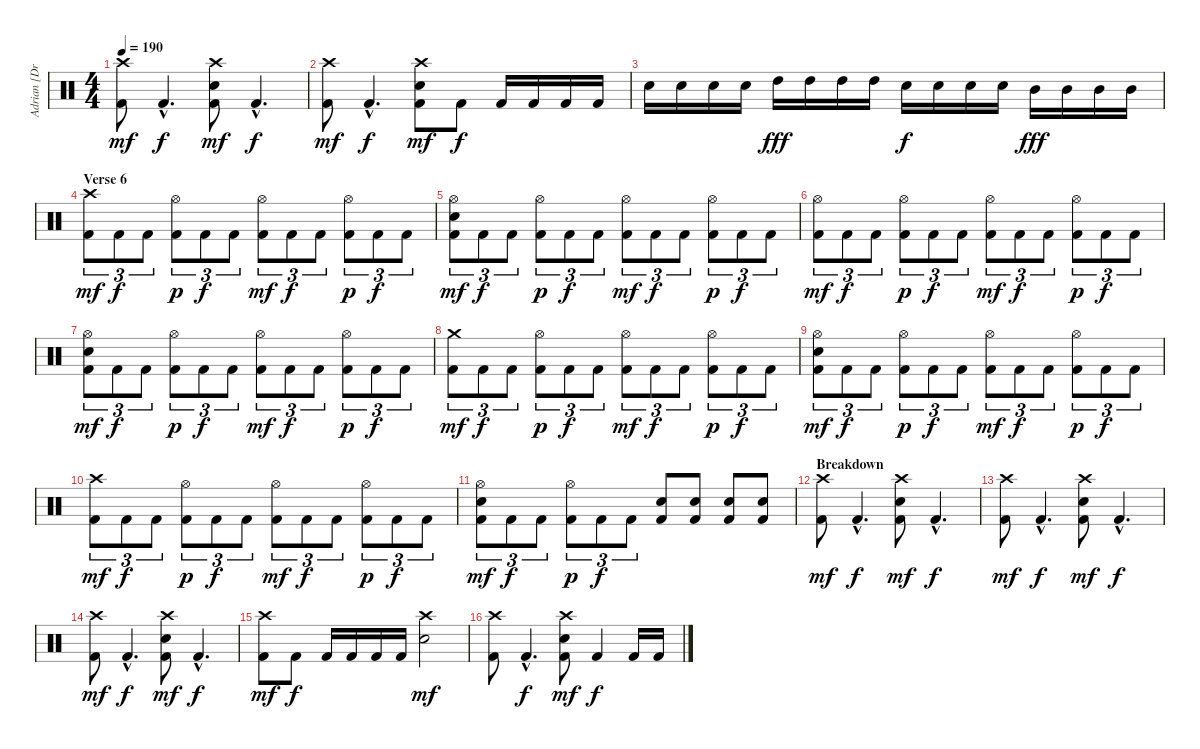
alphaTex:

\track ("Adrian [Drums]" "Adrian [Dr") {instrument percussion}
\staff {score}
\articulation defaults
\ts (4 4)
\tempo 190
\clef neutral
\ks c
("Crash high (hit)" "Kick (hit) 2").8{dy mf} "Kick (hit) 2"{hac}.4{d dy f} ("Crash high (hit)" "Electric Snare (hit)" "Kick (hit) 2").8{dy mf} "Kick (hit) 2"{hac}.4{d dy f} |
("Crash high (hit)" "Kick (hit) 2").8{dy mf} "Kick (hit) 2"{hac}.4{d dy f} ("Crash high (hit)" "Electric Snare (hit)" "Kick (hit) 2").8{dy mf} "Kick (hit) 2".8{dy f} "Kick (hit) 2".16 "Kick (hit) 2".16 "Kick (hit) 2".16 "Kick (hit) 2".16 |
"Electric Snare (hit)".16 "Electric Snare (hit)".16 "Electric Snare (hit)".16 "Electric Snare (hit)".16 "High Tom (hit)".16{dy fff} "High Tom (hit)".16 "High Tom (hit)".16 "High Tom (hit)".16 "Electric Snare (hit)".16{dy f} "Electric Snare (hit)".16 "Electric Snare (hit)".16 "Electric Snare (hit)".16 "Mid Tom (hit)".16{dy fff} "Mid Tom (hit)".16 "Mid Tom (hit)".16 "Mid Tom (hit)".16 |
\section ("" "Verse 6")
("Crash high (hit)" "Kick (hit) 2").8{tu (3 2) dy mf} "Kick (hit) 2".8{tu (3 2) dy f} "Kick (hit) 2".8{tu (3 2)} ("Hi-Hat (open)" "Kick (hit) 2").8{tu (3 2) dy p} "Kick (hit) 2".8{tu (3 2) dy f} "Kick (hit) 2".8{tu (3 2)} ("Hi-Hat (open)" "Kick (hit) 2").8{tu (3 2) dy mf} "Kick (hit) 2".8{tu (3 2) dy f} "Kick (hit) 2".8{tu (3 2)} ("Hi-Hat (open)" "Kick (hit) 2").8{tu (3 2) dy p} "Kick (hit) 2".8{tu (3 2) dy f} "Kick (hit) 2".8{tu (3 2)} |
("Hi-Hat (open)" "Electric Snare (hit)" "Kick (hit) 2").8{tu (3 2) dy mf} "Kick (hit) 2".8{tu (3 2) dy f} "Kick (hit) 2".8{tu (3 2)} ("Hi-Hat (open)" "Kick (hit) 2").8{tu (3 2) dy p} "Kick (hit) 2".8{tu (3 2) dy f} "Kick (hit) 2".8{tu (3 2)} ("Hi-Hat (open)" "Kick (hit) 2").8{tu (3 2) dy mf} "Kick (hit) 2".8{tu (3 2) dy f} "Kick (hit) 2".8{tu (3 2)} ("Hi-Hat (open)" "Kick (hit) 2").8{tu (3 2) dy p} "Kick (hit) 2".8{tu (3 2) dy f} "Kick (hit) 2".8{tu (3 2)} |
("Hi-Hat (open)" "Kick (hit) 2").8{tu (3 2) dy mf} "Kick (hit) 2".8{tu (3 2) dy f} "Kick (hit) 2".8{tu (3 2)} ("Hi-Hat (open)" "Kick (hit) 2").8{tu (3 2) dy p} "Kick (hit) 2".8{tu (3 2) dy f} "Kick (hit) 2".8{tu (3 2)} ("Hi-Hat (open)" "Kick (hit) 2").8{tu (3 2) dy mf} "Kick (hit) 2".8{tu (3 2) dy f} "Kick (hit) 2".8{tu (3 2)} ("Hi-Hat (open)" "Kick (hit) 2").8{tu (3 2) dy p} "Kick (hit) 2".8{tu (3 2) dy f} "Kick (hit) 2".8{tu (3 2)} |
("Hi-Hat (open)" "Electric Snare (hit)" "Kick (hit) 2").8{tu (3 2) dy mf} "Kick (hit) 2".8{tu (3 2) dy f} "Kick (hit) 2".8{tu (3 2)} ("Hi-Hat (open)" "Kick (hit) 2").8{tu (3 2) dy p} "Kick (hit) 2".8{tu (3 2) dy f} "Kick (hit) 2".8{tu (3 2)} ("Hi-Hat (open)" "Kick (hit) 2").8{tu (3 2) dy mf} "Kick (hit) 2".8{tu (3 2) dy f} "Kick (hit) 2".8{tu (3 2)} ("Hi-Hat (open)" "Kick (hit) 2").8{tu (3 2) dy p} "Kick (hit) 2".8{tu (3 2) dy f} "Kick (hit) 2".8{tu (3 2)} |
("Crash medium (hit)" "Kick (hit) 2").8{tu (3 2) dy mf} "Kick (hit) 2".8{tu (3 2) dy f} "Kick (hit) 2".8{tu (3 2)} ("Hi-Hat (open)" "Kick (hit) 2").8{tu (3 2) dy p} "Kick (hit) 2".8{tu (3 2) dy f} "Kick (hit) 2".8{tu (3 2)} ("Hi-Hat (open)" "Kick (hit) 2").8{tu (3 2) dy mf} "Kick (hit) 2".8{tu (3 2) dy f} "Kick (hit) 2".8{tu (3 2)} ("Hi-Hat (open)" "Kick (hit) 2").8{tu (3 2) dy p} "Kick (hit) 2".8{tu (3 2) dy f} "Kick (hit) 2".8{tu (3 2)} |
("Hi-Hat (open)" "Electric Snare (hit)" "Kick (hit) 2").8{tu (3 2) dy mf} "Kick (hit) 2".8{tu (3 2) dy f} "Kick (hit) 2".8{tu (3 2)} ("Hi-Hat (open)" "Kick (hit) 2").8{tu (3 2) dy p} "Kick (hit) 2".8{tu (3 2) dy f} "Kick (hit) 2".8{tu (3 2)} ("Hi-Hat (open)" "Kick (hit) 2").8{tu (3 2) dy mf} "Kick (hit) 2".8{tu (3 2) dy f} "Kick (hit) 2".8{tu (3 2)} ("Hi-Hat (open)" "Kick (hit) 2").8{tu (3 2) dy p} "Kick (hit) 2".8{tu (3 2) dy f} "Kick (hit) 2".8{tu (3 2)} |
("Crash high (hit)" "Kick (hit) 2").8{tu (3 2) dy mf} "Kick (hit) 2".8{tu (3 2) dy f} "Kick (hit) 2".8{tu (3 2)} ("Hi-Hat (open)" "Kick (hit) 2").8{tu (3 2) dy p} "Kick (hit) 2".8{tu (3 2) dy f} "Kick (hit) 2".8{tu (3 2)} ("Hi-Hat (open)" "Kick (hit) 2").8{tu (3 2) dy mf} "Kick (hit) 2".8{tu (3 2) dy f} "Kick (hit) 2".8{tu (3 2)} ("Hi-Hat (open)" "Kick (hit) 2").8{tu (3 2) dy p} "Kick (hit) 2".8{tu (3 2) dy f} "Kick (hit) 2".8{tu (3 2)} |
("Hi-Hat (open)" "Electric Snare (hit)" "Kick (hit) 2").8{tu (3 2) dy mf} "Kick (hit) 2".8{tu (3 2) dy f} "Kick (hit) 2".8{tu (3 2)} ("Hi-Hat (open)" "Kick (hit) 2").8{tu (3 2) dy p} "Kick (hit) 2".8{tu (3 2) dy f} "Kick (hit) 2".8{tu (3 2)} ("Electric Snare (hit)" "Kick (hit) 2").8 ("Electric Snare (hit)" "Kick (hit) 2").8 ("Electric Snare (hit)" "Kick (hit) 2").8 ("Electric Snare (hit)" "Kick (hit) 2").8 |
\section ("" "Breakdown")
("Crash high (hit)" "Kick (hit) 2").8{dy mf} "Kick (hit) 2"{hac}.4{d dy f} ("Crash high (hit)" "Electric Snare (hit)" "Kick (hit) 2").8{dy mf} "Kick (hit) 2"{hac}.4{d dy f} |
("Crash high (hit)" "Kick (hit) 2").8{dy mf} "Kick (hit) 2"{hac}.4{d dy f} ("Crash high (hit)" "Electric Snare (hit)" "Kick (hit) 2").8{dy mf} "Kick (hit) 2"{hac}.4{d dy f} |
("Crash high (hit)" "Kick (hit) 2").8{dy mf} "Kick (hit) 2"{hac}.4{d dy f} ("Crash high (hit)" "Electric Snare (hit)" "Kick (hit) 2").8{dy mf} "Kick (hit) 2"{hac}.4{d dy f} |
("Crash high (hit)" "Kick (hit) 2").8{dy mf} "Kick (hit) 2".8{dy f} "Kick (hit) 2".16 "Kick (hit) 2".16 "Kick (hit) 2".16 "Kick (hit) 2".16 ("Crash high (hit)" "Electric Snare (hit)").2{dy mf} |
("Crash high (hit)" "Kick (hit) 2").8 "Kick (hit) 2"{hac}.4{d dy f} ("Crash high (hit)" "Electric Snare (hit)" "Kick (hit) 2").8{dy mf} "Kick (hit) 2".4{dy f} "Kick (hit) 2".16 "Kick (hit) 2".16
